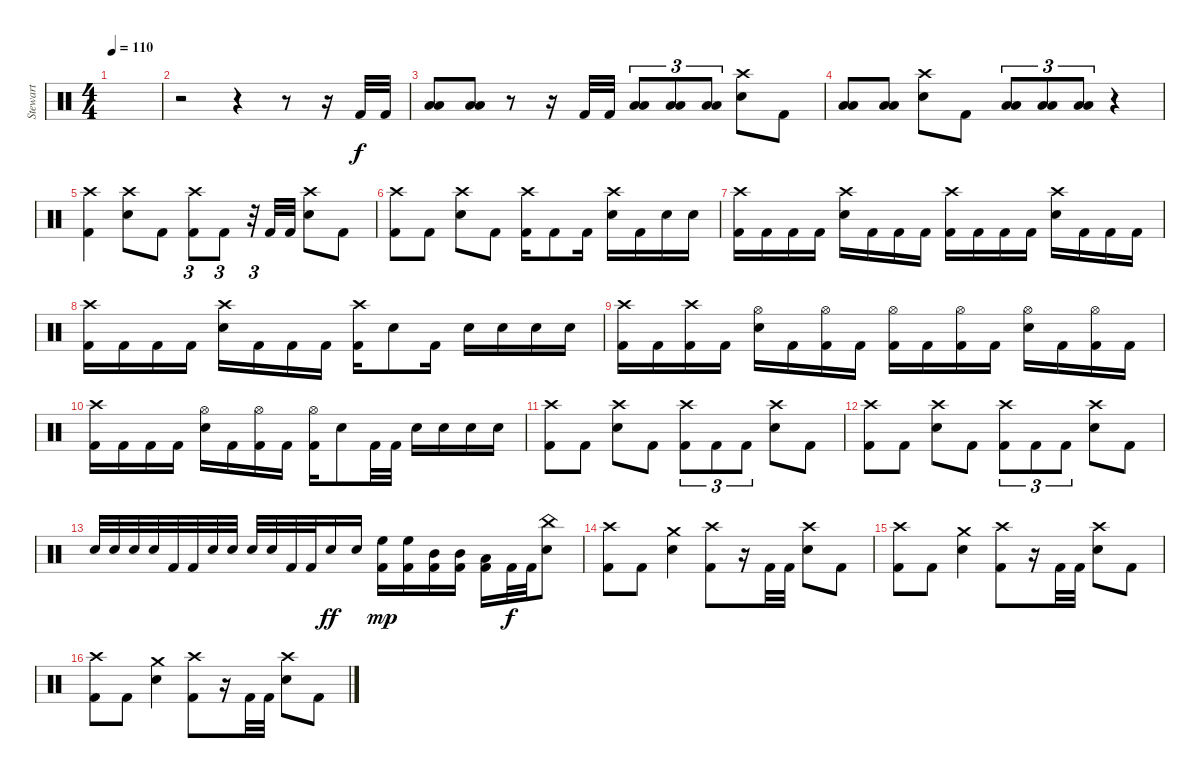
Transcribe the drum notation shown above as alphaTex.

\track ("Stewart" "Stewart") {instrument percussion}
\staff {score}
\articulation defaults
\ts (4 4)
\tempo 110
\clef neutral
\ks c
|
r.2 r.4 r.8 r.16 "Kick (hit) 2".32 "Kick (hit) 2".32 |
("Low Floor Tom (hit)" "Low Tom (hit)").8 ("Low Floor Tom (hit)" "Low Tom (hit)").8 r.8 r.16 "Kick (hit) 2".32 "Kick (hit) 2".32 ("Low Floor Tom (hit)" "Low Tom (hit)").8{tu (3 2)} ("Low Floor Tom (hit)" "Low Tom (hit)").8{tu (3 2)} ("Low Floor Tom (hit)" "Low Tom (hit)").8{tu (3 2)} ("Snare (hit) 2" "Crash high (hit)").8 "Kick (hit) 2".8 |
("Low Floor Tom (hit)" "Low Tom (hit)").8 ("Low Floor Tom (hit)" "Low Tom (hit)").8 ("Snare (hit) 2" "Crash high (hit)").8 "Kick (hit) 2".8 ("Low Floor Tom (hit)" "Low Tom (hit)").8{tu (3 2)} ("Low Floor Tom (hit)" "Low Tom (hit)").8{tu (3 2)} ("Low Floor Tom (hit)" "Low Tom (hit)").8{tu (3 2)} r.4 |
("Crash high (hit)" "Kick (hit) 2").4 ("Crash high (hit)" "Snare (hit) 2").8 "Kick (hit) 2".8 ("Crash high (hit)" "Kick (hit) 2").8{tu (3 2)} "Kick (hit) 2".8{tu (3 2)} r.32{tu (3 2)} "Kick (hit) 2".32 "Kick (hit) 2".32 ("Crash high (hit)" "Snare (hit) 2").8 "Kick (hit) 2".8 |
("Crash high (hit)" "Kick (hit) 2").8 "Kick (hit) 2".8 ("Crash high (hit)" "Snare (hit) 2").8 "Kick (hit) 2".8 ("Crash high (hit)" "Kick (hit) 2").16 "Kick (hit) 2".8 "Kick (hit) 2".16 ("Crash high (hit)" "Snare (hit) 2").16 "Kick (hit) 2".16 "Snare (hit) 2".16 "Snare (hit) 2".16 |
("Kick (hit) 2" "Crash high (hit)").16 "Kick (hit) 2".16 "Kick (hit) 2".16 "Kick (hit) 2".16 ("Snare (hit) 2" "Crash high (hit)").16 "Kick (hit) 2".16 "Kick (hit) 2".16 "Kick (hit) 2".16 ("Kick (hit) 2" "Crash high (hit)").16 "Kick (hit) 2".16 "Kick (hit) 2".16 "Kick (hit) 2".16 ("Snare (hit) 2" "Crash high (hit)").16 "Kick (hit) 2".16 "Kick (hit) 2".16 "Kick (hit) 2".16 |
("Kick (hit) 2" "Crash high (hit)").16 "Kick (hit) 2".16 "Kick (hit) 2".16 "Kick (hit) 2".16 ("Snare (hit) 2" "Crash high (hit)").16 "Kick (hit) 2".16 "Kick (hit) 2".16 "Kick (hit) 2".16 ("Kick (hit) 2" "Crash high (hit)").16 "Snare (hit) 2".8 "Kick (hit) 2".16 "Snare (hit) 2".16 "Snare (hit) 2".16 "Snare (hit) 2".16 "Snare (hit) 2".16 |
("Kick (hit) 2" "Crash high (hit)").16 "Kick (hit) 2".16 ("Kick (hit) 2" "Crash high (hit)").16 "Kick (hit) 2".16 ("Snare (hit) 2" "Hi-Hat (open)").16 "Kick (hit) 2".16 ("Kick (hit) 2" "Hi-Hat (open)").16 "Kick (hit) 2".16 ("Kick (hit) 2" "Hi-Hat (open)").16 "Kick (hit) 2".16 ("Kick (hit) 2" "Hi-Hat (open)").16 "Kick (hit) 2".16 ("Snare (hit) 2" "Hi-Hat (open)").16 "Kick (hit) 2".16 ("Kick (hit) 2" "Hi-Hat (open)").16 "Kick (hit) 2".16 |
("Kick (hit) 2" "Crash high (hit)").16 "Kick (hit) 2".16 "Kick (hit) 2".16 "Kick (hit) 2".16 ("Snare (hit) 2" "Hi-Hat (open)").16 "Kick (hit) 2".16 ("Kick (hit) 2" "Hi-Hat (open)").16 "Kick (hit) 2".16 ("Kick (hit) 2" "Hi-Hat (open)").16 "Snare (hit) 2".8 "Kick (hit) 2".32 "Kick (hit) 2".32 "Snare (hit) 2".16 "Snare (hit) 2".16 "Snare (hit) 2".16 "Snare (hit) 2".16 |
("Kick (hit) 2" "Crash high (hit)").8 "Kick (hit) 2".8 ("Snare (hit) 2" "Crash high (hit)").8 "Kick (hit) 2".8 ("Kick (hit) 2" "Crash high (hit)").8{tu (3 2)} "Kick (hit) 2".8{tu (3 2)} "Kick (hit) 2".8{tu (3 2)} ("Snare (hit) 2" "Crash high (hit)").8 "Kick (hit) 2".8 |
("Kick (hit) 2" "Crash high (hit)").8 "Kick (hit) 2".8 ("Snare (hit) 2" "Crash high (hit)").8 "Kick (hit) 2".8 ("Kick (hit) 2" "Crash high (hit)").8{tu (3 2)} "Kick (hit) 2".8{tu (3 2)} "Kick (hit) 2".8{tu (3 2)} ("Snare (hit) 2" "Crash high (hit)").8 "Kick (hit) 2".8 |
"Snare (hit) 2".32 "Snare (hit) 2".32 "Snare (hit) 2".32 "Snare (hit) 2".32 "Kick (hit) 2".32 "Kick (hit) 2".32 "Snare (hit) 2".32 "Snare (hit) 2".32 "Snare (hit) 2".32 "Snare (hit) 2".32 "Kick (hit) 2".32 "Kick (hit) 2".32 "Snare (hit) 2".16{dy ff} "Snare (hit) 2".16 ("High Floor Tom (hit)" "Kick (hit) 2").16{dy mp} ("High Floor Tom (hit)" "Kick (hit) 2").16 ("Mid Tom (hit)" "Kick (hit) 2").16 ("Mid Tom (hit)" "Kick (hit) 2").16 ("Low Tom (hit)" "Kick (hit) 2").16 "Kick (hit) 2".32{dy f} "Kick (hit) 2".32 ("Snare (hit) 2" "China (hit)").8 |
("Kick (hit) 2" "Crash high (hit)").8 "Kick (hit) 2".8 ("Snare (hit) 2" "Crash medium (hit)").4 ("Kick (hit) 2" "Crash high (hit)").8 r.16 "Kick (hit) 2".32 "Kick (hit) 2".32 ("Snare (hit) 2" "Crash high (hit)").8 "Kick (hit) 2".8 |
("Kick (hit) 2" "Crash high (hit)").8 "Kick (hit) 2".8 ("Snare (hit) 2" "Crash medium (hit)").4 ("Kick (hit) 2" "Crash high (hit)").8 r.16 "Kick (hit) 2".32 "Kick (hit) 2".32 ("Snare (hit) 2" "Crash high (hit)").8 "Kick (hit) 2".8 |
("Kick (hit) 2" "Crash high (hit)").8 "Kick (hit) 2".8 ("Snare (hit) 2" "Crash medium (hit)").4 ("Kick (hit) 2" "Crash high (hit)").8 r.16 "Kick (hit) 2".32 "Kick (hit) 2".32 ("Snare (hit) 2" "Crash high (hit)").8 "Kick (hit) 2".8
